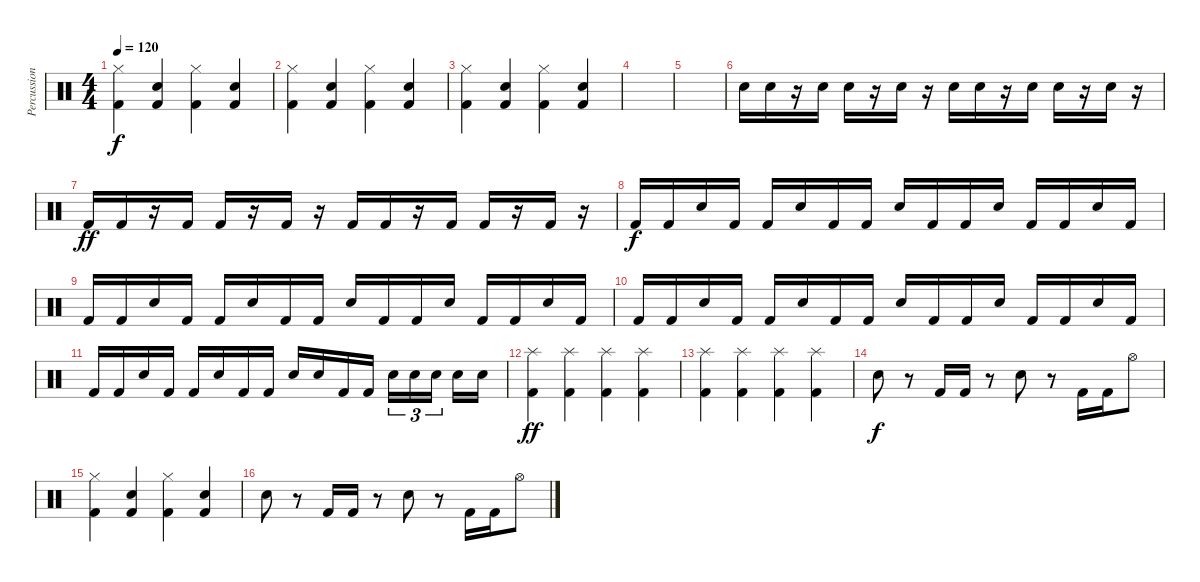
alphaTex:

\track ("Percussion" "Percussion") {instrument percussion}
\staff {score}
\articulation defaults
\ts (4 4)
\tempo 120
\clef neutral
\ks c
("Hi-Hat (closed)" "Kick (hit) 2").4{dy f} ("Snare (hit) 2" "Kick (hit) 2").4 ("Hi-Hat (closed)" "Kick (hit) 2").4 ("Snare (hit) 2" "Kick (hit) 2").4 |
("Hi-Hat (closed)" "Kick (hit) 2").4 ("Snare (hit) 2" "Kick (hit) 2").4 ("Hi-Hat (closed)" "Kick (hit) 2").4 ("Snare (hit) 2" "Kick (hit) 2").4 |
("Hi-Hat (closed)" "Kick (hit) 2").4 ("Snare (hit) 2" "Kick (hit) 2").4 ("Hi-Hat (closed)" "Kick (hit) 2").4 ("Snare (hit) 2" "Kick (hit) 2").4 |
|
|
"Snare (hit) 2".16 "Snare (hit) 2".16 r.16 "Snare (hit) 2".16 "Snare (hit) 2".16 r.16 "Snare (hit) 2".16 r.16 "Snare (hit) 2".16 "Snare (hit) 2".16 r.16 "Snare (hit) 2".16 "Snare (hit) 2".16 r.16 "Snare (hit) 2".16 r.16 |
"Kick (hit) 2".16{dy ff} "Kick (hit) 2".16 r.16 "Kick (hit) 2".16 "Kick (hit) 2".16 r.16 "Kick (hit) 2".16 r.16 "Kick (hit) 2".16 "Kick (hit) 2".16 r.16 "Kick (hit) 2".16 "Kick (hit) 2".16 r.16 "Kick (hit) 2".16 r.16 |
"Kick (hit) 2".16{dy f} "Kick (hit) 2".16 "Snare (hit) 2".16 "Kick (hit) 2".16 "Kick (hit) 2".16 "Snare (hit) 2".16 "Kick (hit) 2".16 "Kick (hit) 2".16 "Snare (hit) 2".16 "Kick (hit) 2".16 "Kick (hit) 2".16 "Snare (hit) 2".16 "Kick (hit) 2".16 "Kick (hit) 2".16 "Snare (hit) 2".16 "Kick (hit) 2".16 |
"Kick (hit) 2".16 "Kick (hit) 2".16 "Snare (hit) 2".16 "Kick (hit) 2".16 "Kick (hit) 2".16 "Snare (hit) 2".16 "Kick (hit) 2".16 "Kick (hit) 2".16 "Snare (hit) 2".16 "Kick (hit) 2".16 "Kick (hit) 2".16 "Snare (hit) 2".16 "Kick (hit) 2".16 "Kick (hit) 2".16 "Snare (hit) 2".16 "Kick (hit) 2".16 |
"Kick (hit) 2".16 "Kick (hit) 2".16 "Snare (hit) 2".16 "Kick (hit) 2".16 "Kick (hit) 2".16 "Snare (hit) 2".16 "Kick (hit) 2".16 "Kick (hit) 2".16 "Snare (hit) 2".16 "Kick (hit) 2".16 "Kick (hit) 2".16 "Snare (hit) 2".16 "Kick (hit) 2".16 "Kick (hit) 2".16 "Snare (hit) 2".16 "Kick (hit) 2".16 |
"Kick (hit) 2".16 "Kick (hit) 2".16 "Snare (hit) 2".16 "Kick (hit) 2".16 "Kick (hit) 2".16 "Snare (hit) 2".16 "Kick (hit) 2".16 "Kick (hit) 2".16 "Snare (hit) 2".16 "Snare (hit) 2".16 "Kick (hit) 2".16 "Kick (hit) 2".16 "Snare (hit) 2".16{tu (3 2)} "Snare (hit) 2".16{tu (3 2)} "Snare (hit) 2".16{tu (3 2) beam splitsecondary} "Snare (hit) 2".16 "Snare (hit) 2".16 |
("Splash (hit)" "Kick (hit) 2").4{dy ff} ("Splash (hit)" "Kick (hit) 2").4 ("Splash (hit)" "Kick (hit) 2").4 ("Splash (hit)" "Kick (hit) 2").4 |
("Splash (hit)" "Kick (hit) 2").4 ("Splash (hit)" "Kick (hit) 2").4 ("Splash (hit)" "Kick (hit) 2").4 ("Splash (hit)" "Kick (hit) 2").4 |
"Snare (hit) 2".8{dy f} r.8 "Kick (hit) 2".16 "Kick (hit) 2".16 r.8 "Snare (hit) 2".8 r.8 "Kick (hit) 2".16 "Kick (hit) 2".16 "Hi-Hat (open)".8 |
("Hi-Hat (closed)" "Kick (hit) 2").4 ("Snare (hit) 2" "Kick (hit) 2").4 ("Hi-Hat (closed)" "Kick (hit) 2").4 ("Snare (hit) 2" "Kick (hit) 2").4 |
"Snare (hit) 2".8 r.8 "Kick (hit) 2".16 "Kick (hit) 2".16 r.8 "Snare (hit) 2".8 r.8 "Kick (hit) 2".16 "Kick (hit) 2".16 "Hi-Hat (open)".8
